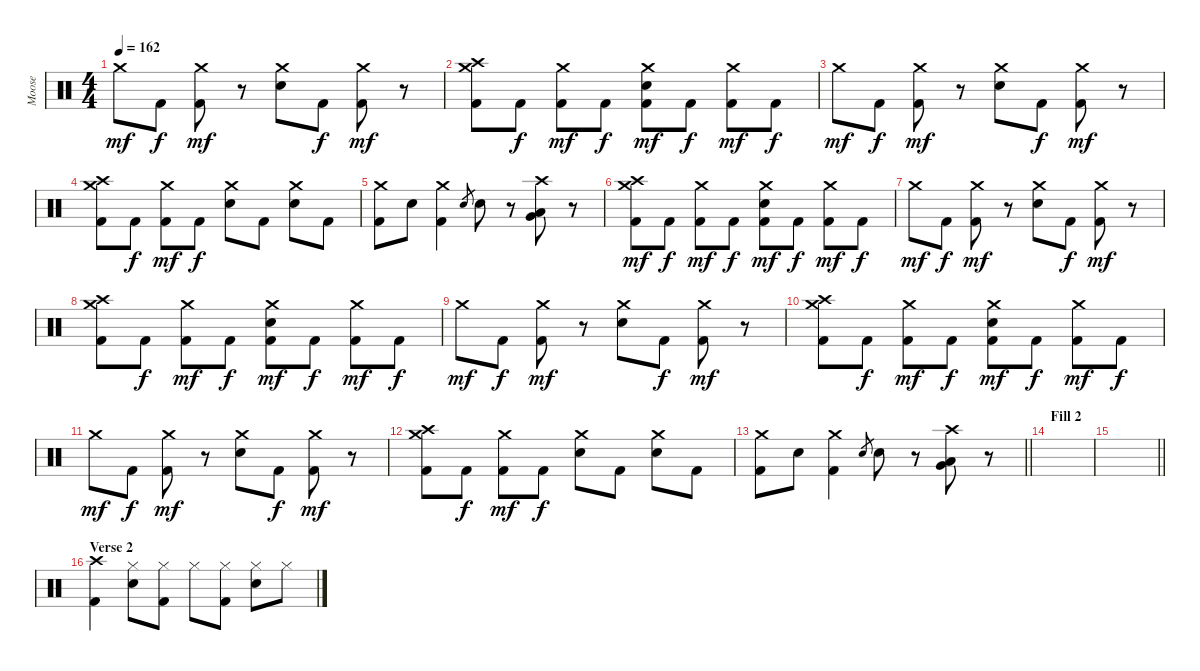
\track ("Moose" "Moose") {instrument percussion}
\staff {score}
\articulation defaults
\ts (4 4)
\tempo 162
\clef neutral
\ks c "Crash medium (hit)".8{dy mf} "Kick (hit) 2".8{dy f}
("Kick (hit) 2" "Crash medium (hit)").8{dy mf} r.8 ("Snare (hit) 2" "Crash medium (hit)").8 "Kick (hit) 2".8{dy f} ("Kick (hit) 2" "Crash medium (hit)").8{dy mf} r.8 |
("Kick (hit) 2" "Crash high (hit)" "Crash medium (hit)").8 "Kick (hit) 2".8{dy f} ("Kick (hit) 2" "Crash medium (hit)").8{dy mf} "Kick (hit) 2".8{dy f} ("Kick (hit) 2" "Snare (hit) 2" "Crash medium (hit)").8{dy mf} "Kick (hit) 2".8{dy f} ("Kick (hit) 2" "Crash medium (hit)").8{dy mf} "Kick (hit) 2".8{dy f} |
"Crash medium (hit)".8{dy mf} "Kick (hit) 2".8{dy f} ("Kick (hit) 2" "Crash medium (hit)").8{dy mf} r.8 ("Snare (hit) 2" "Crash medium (hit)").8 "Kick (hit) 2".8{dy f} ("Kick (hit) 2" "Crash medium (hit)").8{dy mf} r.8 |
("Kick (hit) 2" "Crash high (hit)" "Crash medium (hit)").8 "Kick (hit) 2".8{dy f} ("Kick (hit) 2" "Crash medium (hit)").8{dy mf} "Kick (hit) 2".8{dy f} ("Crash medium (hit)" "Snare (hit) 2").8 "Kick (hit) 2".8 ("Crash medium (hit)" "Snare (hit) 2").8 "Kick (hit) 2".8 |
("Crash medium (hit)" "Kick (hit) 2").8 "Snare (hit) 2".8 ("Crash medium (hit)" "Kick (hit) 2").4 "Snare (hit) 2".8{gr} "Snare (hit) 2".8 r.8 ("Crash high (hit)" "Very Low Tom (hit)" "Low Floor Tom (hit)").8 r.8 |
("Kick (hit) 2" "Crash high (hit)" "Crash medium (hit)").8{dy mf} "Kick (hit) 2".8{dy f} ("Kick (hit) 2" "Crash medium (hit)").8{dy mf} "Kick (hit) 2".8{dy f} ("Kick (hit) 2" "Snare (hit) 2" "Crash medium (hit)").8{dy mf} "Kick (hit) 2".8{dy f} ("Kick (hit) 2" "Crash medium (hit)").8{dy mf} "Kick (hit) 2".8{dy f} |
"Crash medium (hit)".8{dy mf} "Kick (hit) 2".8{dy f} ("Kick (hit) 2" "Crash medium (hit)").8{dy mf} r.8 ("Snare (hit) 2" "Crash medium (hit)").8 "Kick (hit) 2".8{dy f} ("Kick (hit) 2" "Crash medium (hit)").8{dy mf} r.8 |
("Kick (hit) 2" "Crash high (hit)" "Crash medium (hit)").8 "Kick (hit) 2".8{dy f} ("Kick (hit) 2" "Crash medium (hit)").8{dy mf} "Kick (hit) 2".8{dy f} ("Kick (hit) 2" "Snare (hit) 2" "Crash medium (hit)").8{dy mf} "Kick (hit) 2".8{dy f} ("Kick (hit) 2" "Crash medium (hit)").8{dy mf} "Kick (hit) 2".8{dy f} |
"Crash medium (hit)".8{dy mf} "Kick (hit) 2".8{dy f} ("Kick (hit) 2" "Crash medium (hit)").8{dy mf} r.8 ("Snare (hit) 2" "Crash medium (hit)").8 "Kick (hit) 2".8{dy f} ("Kick (hit) 2" "Crash medium (hit)").8{dy mf} r.8 |
("Kick (hit) 2" "Crash high (hit)" "Crash medium (hit)").8 "Kick (hit) 2".8{dy f} ("Kick (hit) 2" "Crash medium (hit)").8{dy mf} "Kick (hit) 2".8{dy f} ("Kick (hit) 2" "Snare (hit) 2" "Crash medium (hit)").8{dy mf} "Kick (hit) 2".8{dy f} ("Kick (hit) 2" "Crash medium (hit)").8{dy mf} "Kick (hit) 2".8{dy f} |
"Crash medium (hit)".8{dy mf} "Kick (hit) 2".8{dy f} ("Kick (hit) 2" "Crash medium (hit)").8{dy mf} r.8 ("Snare (hit) 2" "Crash medium (hit)").8 "Kick (hit) 2".8{dy f} ("Kick (hit) 2" "Crash medium (hit)").8{dy mf} r.8 |
("Kick (hit) 2" "Crash high (hit)" "Crash medium (hit)").8 "Kick (hit) 2".8{dy f} ("Kick (hit) 2" "Crash medium (hit)").8{dy mf} "Kick (hit) 2".8{dy f} ("Crash medium (hit)" "Snare (hit) 2").8 "Kick (hit) 2".8 ("Crash medium (hit)" "Snare (hit) 2").8 "Kick (hit) 2".8 |
\barLineRight lightlight
("Crash medium (hit)" "Kick (hit) 2").8 "Snare (hit) 2".8 ("Crash medium (hit)" "Kick (hit) 2").4 "Snare (hit) 2".8{gr} "Snare (hit) 2".8 r.8 ("Crash high (hit)" "Very Low Tom (hit)" "Low Floor Tom (hit)").8 r.8 |
\section ("" "Fill 2")
|
\barLineRight lightlight
|
\section ("" "Verse 2")
("Crash high (hit)" "Kick (hit) 2").4 ("Hi-Hat (closed)" "Snare (hit) 2").8 ("Hi-Hat (closed)" "Kick (hit) 2").8 "Hi-Hat (closed)".8 ("Hi-Hat (closed)" "Kick (hit) 2").8 ("Hi-Hat (closed)" "Snare (hit) 2").8 "Hi-Hat (closed)".8
